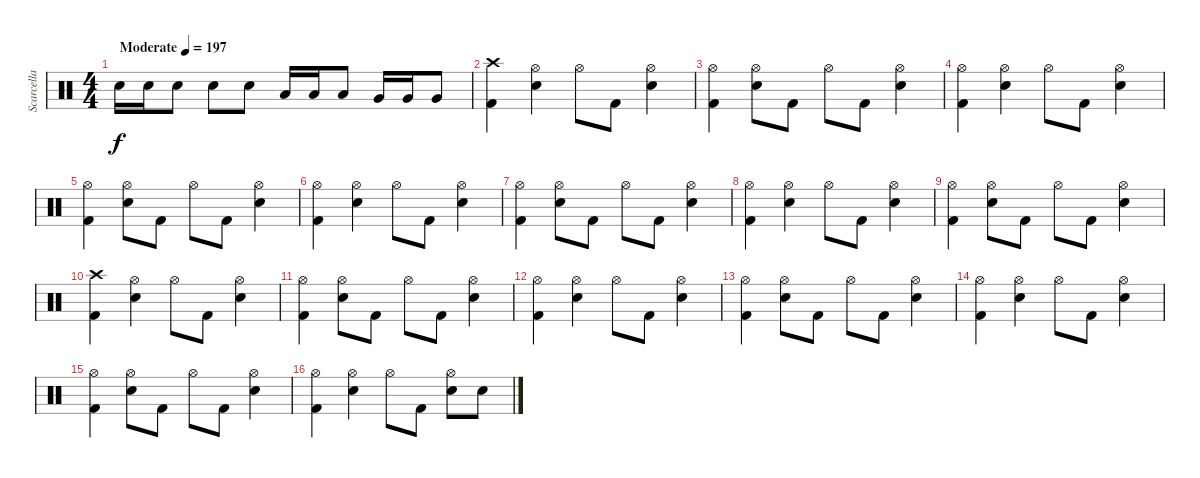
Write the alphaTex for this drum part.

\track ("Scarcella" "Scarcella") {instrument percussion}
\staff {score}
\articulation defaults
\ts (4 4)
\tempo (197 "Moderate")
\clef neutral
\ks c "Electric Snare (hit)".16{dy f} "Electric Snare (hit)".16 "Electric Snare (hit)".8 "Electric Snare (hit)".8 "Electric Snare (hit)".8 "Low Tom (hit)".16 "Low Tom (hit)".16 "Low Tom (hit)".8 "Very Low Tom (hit)".16 "Very Low Tom (hit)".16 "Very Low Tom (hit)".8
|
("Crash high (hit)" "Kick (hit) 2").4 ("Hi-Hat (open)" "Electric Snare (hit)").4 "Hi-Hat (open)".8 "Kick (hit) 2".8 ("Hi-Hat (open)" "Electric Snare (hit)").4 |
("Hi-Hat (open)" "Kick (hit) 2").4 ("Hi-Hat (open)" "Electric Snare (hit)").8 "Kick (hit) 2".8 "Hi-Hat (open)".8 "Kick (hit) 2".8 ("Hi-Hat (open)" "Electric Snare (hit)").4 |
("Hi-Hat (open)" "Kick (hit) 2").4 ("Hi-Hat (open)" "Electric Snare (hit)").4 "Hi-Hat (open)".8 "Kick (hit) 2".8 ("Hi-Hat (open)" "Electric Snare (hit)").4 |
("Hi-Hat (open)" "Kick (hit) 2").4 ("Hi-Hat (open)" "Electric Snare (hit)").8 "Kick (hit) 2".8 "Hi-Hat (open)".8 "Kick (hit) 2".8 ("Hi-Hat (open)" "Electric Snare (hit)").4 |
("Hi-Hat (open)" "Kick (hit) 2").4 ("Hi-Hat (open)" "Electric Snare (hit)").4 "Hi-Hat (open)".8 "Kick (hit) 2".8 ("Hi-Hat (open)" "Electric Snare (hit)").4 |
("Hi-Hat (open)" "Kick (hit) 2").4 ("Hi-Hat (open)" "Electric Snare (hit)").8 "Kick (hit) 2".8 "Hi-Hat (open)".8 "Kick (hit) 2".8 ("Hi-Hat (open)" "Electric Snare (hit)").4 |
("Hi-Hat (open)" "Kick (hit) 2").4 ("Hi-Hat (open)" "Electric Snare (hit)").4 "Hi-Hat (open)".8 "Kick (hit) 2".8 ("Hi-Hat (open)" "Electric Snare (hit)").4 |
("Hi-Hat (open)" "Kick (hit) 2").4 ("Hi-Hat (open)" "Electric Snare (hit)").8 "Kick (hit) 2".8 "Hi-Hat (open)".8 "Kick (hit) 2".8 ("Hi-Hat (open)" "Electric Snare (hit)").4 |
("Crash high (hit)" "Kick (hit) 2").4 ("Hi-Hat (open)" "Electric Snare (hit)").4 "Hi-Hat (open)".8 "Kick (hit) 2".8 ("Hi-Hat (open)" "Electric Snare (hit)").4 |
("Hi-Hat (open)" "Kick (hit) 2").4 ("Hi-Hat (open)" "Electric Snare (hit)").8 "Kick (hit) 2".8 "Hi-Hat (open)".8 "Kick (hit) 2".8 ("Hi-Hat (open)" "Electric Snare (hit)").4 |
("Hi-Hat (open)" "Kick (hit) 2").4 ("Hi-Hat (open)" "Electric Snare (hit)").4 "Hi-Hat (open)".8 "Kick (hit) 2".8 ("Hi-Hat (open)" "Electric Snare (hit)").4 |
("Hi-Hat (open)" "Kick (hit) 2").4 ("Hi-Hat (open)" "Electric Snare (hit)").8 "Kick (hit) 2".8 "Hi-Hat (open)".8 "Kick (hit) 2".8 ("Hi-Hat (open)" "Electric Snare (hit)").4 |
("Hi-Hat (open)" "Kick (hit) 2").4 ("Hi-Hat (open)" "Electric Snare (hit)").4 "Hi-Hat (open)".8 "Kick (hit) 2".8 ("Hi-Hat (open)" "Electric Snare (hit)").4 |
("Hi-Hat (open)" "Kick (hit) 2").4 ("Hi-Hat (open)" "Electric Snare (hit)").8 "Kick (hit) 2".8 "Hi-Hat (open)".8 "Kick (hit) 2".8 ("Hi-Hat (open)" "Electric Snare (hit)").4 |
("Hi-Hat (open)" "Kick (hit) 2").4 ("Hi-Hat (open)" "Electric Snare (hit)").4 "Hi-Hat (open)".8 "Kick (hit) 2".8 ("Hi-Hat (open)" "Electric Snare (hit)").8 "Electric Snare (hit)".8
